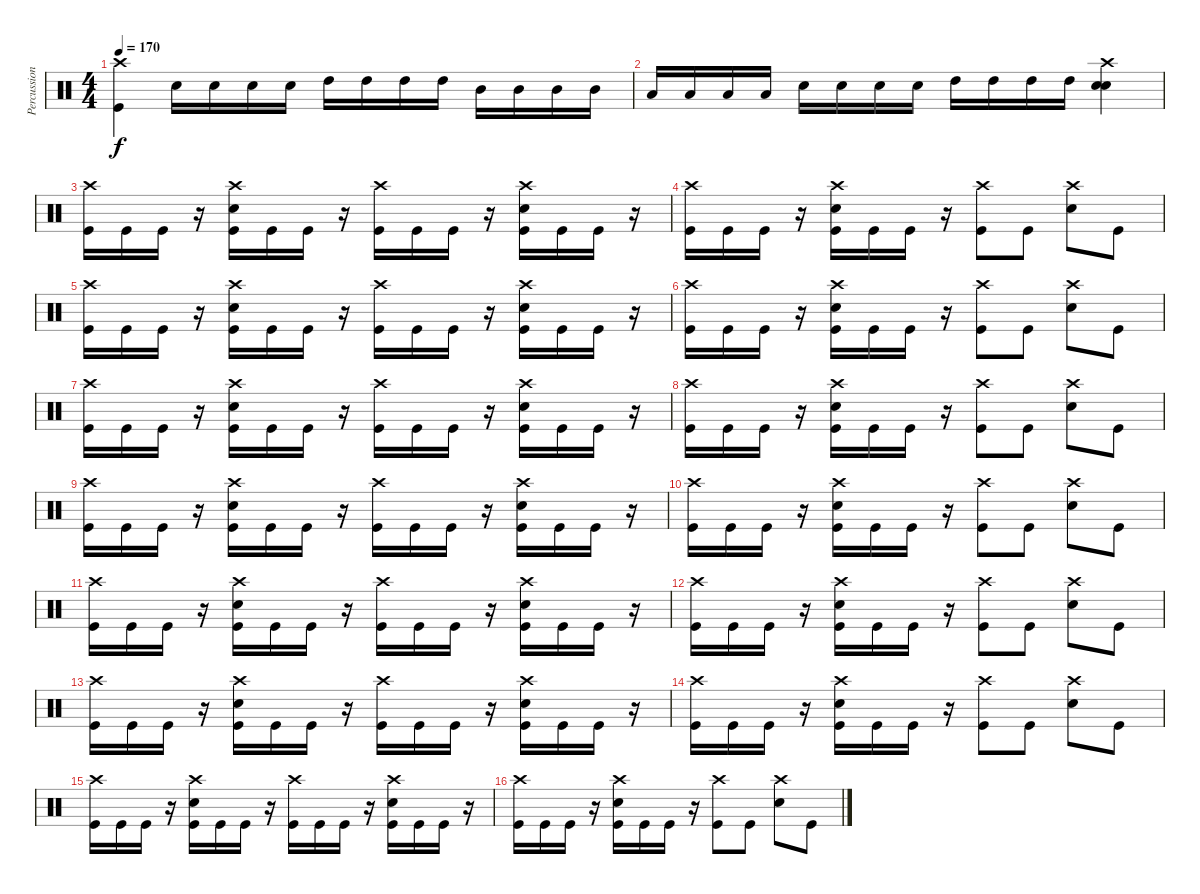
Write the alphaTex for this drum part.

\track ("Percussion" "Percussion") {instrument percussion}
\staff {score}
\articulation defaults
\ts (4 4)
\tempo 170
\clef neutral
\ks c
("Crash high (hit)" "Kick (hit)").4{dy f} "Snare (hit) 2".16 "Snare (hit) 2".16 "Snare (hit) 2".16 "Snare (hit) 2".16 "High Tom (hit)".16 "High Tom (hit)".16 "High Tom (hit)".16 "High Tom (hit)".16 "Mid Tom (hit)".16 "Mid Tom (hit)".16 "Mid Tom (hit)".16 "Mid Tom (hit)".16 |
"Low Tom (hit)".16 "Low Tom (hit)".16 "Low Tom (hit)".16 "Low Tom (hit)".16 "Snare (hit) 2".16 "Snare (hit) 2".16 "Snare (hit) 2".16 "Snare (hit) 2".16 "High Tom (hit)".16 "High Tom (hit)".16 "High Tom (hit)".16 "High Tom (hit)".16 ("Crash high (hit)" "Snare (hit) 2" "Snare (hit) 2").4 |
("Crash high (hit)" "Kick (hit)").16 "Kick (hit)".16 "Kick (hit)".16 r.16 ("Crash high (hit)" "Snare (hit) 2" "Kick (hit)").16 "Kick (hit)".16 "Kick (hit)".16 r.16 ("Crash high (hit)" "Kick (hit)").16 "Kick (hit)".16 "Kick (hit)".16 r.16 ("Crash high (hit)" "Snare (hit) 2" "Kick (hit)").16 "Kick (hit)".16 "Kick (hit)".16 r.16 |
("Crash high (hit)" "Kick (hit)").16 "Kick (hit)".16 "Kick (hit)".16 r.16 ("Crash high (hit)" "Snare (hit) 2" "Kick (hit)").16 "Kick (hit)".16 "Kick (hit)".16 r.16 ("Crash high (hit)" "Kick (hit)").8 "Kick (hit)".8 ("Crash high (hit)" "Snare (hit) 2").8 "Kick (hit)".8 |
("Crash high (hit)" "Kick (hit)").16 "Kick (hit)".16 "Kick (hit)".16 r.16 ("Crash high (hit)" "Snare (hit) 2" "Kick (hit)").16 "Kick (hit)".16 "Kick (hit)".16 r.16 ("Crash high (hit)" "Kick (hit)").16 "Kick (hit)".16 "Kick (hit)".16 r.16 ("Crash high (hit)" "Snare (hit) 2" "Kick (hit)").16 "Kick (hit)".16 "Kick (hit)".16 r.16 |
("Crash high (hit)" "Kick (hit)").16 "Kick (hit)".16 "Kick (hit)".16 r.16 ("Crash high (hit)" "Snare (hit) 2" "Kick (hit)").16 "Kick (hit)".16 "Kick (hit)".16 r.16 ("Crash high (hit)" "Kick (hit)").8 "Kick (hit)".8 ("Crash high (hit)" "Snare (hit) 2").8 "Kick (hit)".8 |
("Crash high (hit)" "Kick (hit)").16 "Kick (hit)".16 "Kick (hit)".16 r.16 ("Crash high (hit)" "Snare (hit) 2" "Kick (hit)").16 "Kick (hit)".16 "Kick (hit)".16 r.16 ("Crash high (hit)" "Kick (hit)").16 "Kick (hit)".16 "Kick (hit)".16 r.16 ("Crash high (hit)" "Snare (hit) 2" "Kick (hit)").16 "Kick (hit)".16 "Kick (hit)".16 r.16 |
("Crash high (hit)" "Kick (hit)").16 "Kick (hit)".16 "Kick (hit)".16 r.16 ("Crash high (hit)" "Snare (hit) 2" "Kick (hit)").16 "Kick (hit)".16 "Kick (hit)".16 r.16 ("Crash high (hit)" "Kick (hit)").8 "Kick (hit)".8 ("Crash high (hit)" "Snare (hit) 2").8 "Kick (hit)".8 |
("Crash high (hit)" "Kick (hit)").16 "Kick (hit)".16 "Kick (hit)".16 r.16 ("Crash high (hit)" "Snare (hit) 2" "Kick (hit)").16 "Kick (hit)".16 "Kick (hit)".16 r.16 ("Crash high (hit)" "Kick (hit)").16 "Kick (hit)".16 "Kick (hit)".16 r.16 ("Crash high (hit)" "Snare (hit) 2" "Kick (hit)").16 "Kick (hit)".16 "Kick (hit)".16 r.16 |
("Crash high (hit)" "Kick (hit)").16 "Kick (hit)".16 "Kick (hit)".16 r.16 ("Crash high (hit)" "Snare (hit) 2" "Kick (hit)").16 "Kick (hit)".16 "Kick (hit)".16 r.16 ("Crash high (hit)" "Kick (hit)").8 "Kick (hit)".8 ("Crash high (hit)" "Snare (hit) 2").8 "Kick (hit)".8 |
("Crash high (hit)" "Kick (hit)").16 "Kick (hit)".16 "Kick (hit)".16 r.16 ("Crash high (hit)" "Snare (hit) 2" "Kick (hit)").16 "Kick (hit)".16 "Kick (hit)".16 r.16 ("Crash high (hit)" "Kick (hit)").16 "Kick (hit)".16 "Kick (hit)".16 r.16 ("Crash high (hit)" "Snare (hit) 2" "Kick (hit)").16 "Kick (hit)".16 "Kick (hit)".16 r.16 |
("Crash high (hit)" "Kick (hit)").16 "Kick (hit)".16 "Kick (hit)".16 r.16 ("Crash high (hit)" "Snare (hit) 2" "Kick (hit)").16 "Kick (hit)".16 "Kick (hit)".16 r.16 ("Crash high (hit)" "Kick (hit)").8 "Kick (hit)".8 ("Crash high (hit)" "Snare (hit) 2").8 "Kick (hit)".8 |
("Crash high (hit)" "Kick (hit)").16 "Kick (hit)".16 "Kick (hit)".16 r.16 ("Crash high (hit)" "Snare (hit) 2" "Kick (hit)").16 "Kick (hit)".16 "Kick (hit)".16 r.16 ("Crash high (hit)" "Kick (hit)").16 "Kick (hit)".16 "Kick (hit)".16 r.16 ("Crash high (hit)" "Snare (hit) 2" "Kick (hit)").16 "Kick (hit)".16 "Kick (hit)".16 r.16 |
("Crash high (hit)" "Kick (hit)").16 "Kick (hit)".16 "Kick (hit)".16 r.16 ("Crash high (hit)" "Snare (hit) 2" "Kick (hit)").16 "Kick (hit)".16 "Kick (hit)".16 r.16 ("Crash high (hit)" "Kick (hit)").8 "Kick (hit)".8 ("Crash high (hit)" "Snare (hit) 2").8 "Kick (hit)".8 |
("Crash high (hit)" "Kick (hit)").16 "Kick (hit)".16 "Kick (hit)".16 r.16 ("Crash high (hit)" "Snare (hit) 2" "Kick (hit)").16 "Kick (hit)".16 "Kick (hit)".16 r.16 ("Crash high (hit)" "Kick (hit)").16 "Kick (hit)".16 "Kick (hit)".16 r.16 ("Crash high (hit)" "Snare (hit) 2" "Kick (hit)").16 "Kick (hit)".16 "Kick (hit)".16 r.16 |
("Crash high (hit)" "Kick (hit)").16 "Kick (hit)".16 "Kick (hit)".16 r.16 ("Crash high (hit)" "Snare (hit) 2" "Kick (hit)").16 "Kick (hit)".16 "Kick (hit)".16 r.16 ("Crash high (hit)" "Kick (hit)").8 "Kick (hit)".8 ("Crash high (hit)" "Snare (hit) 2").8 "Kick (hit)".8
